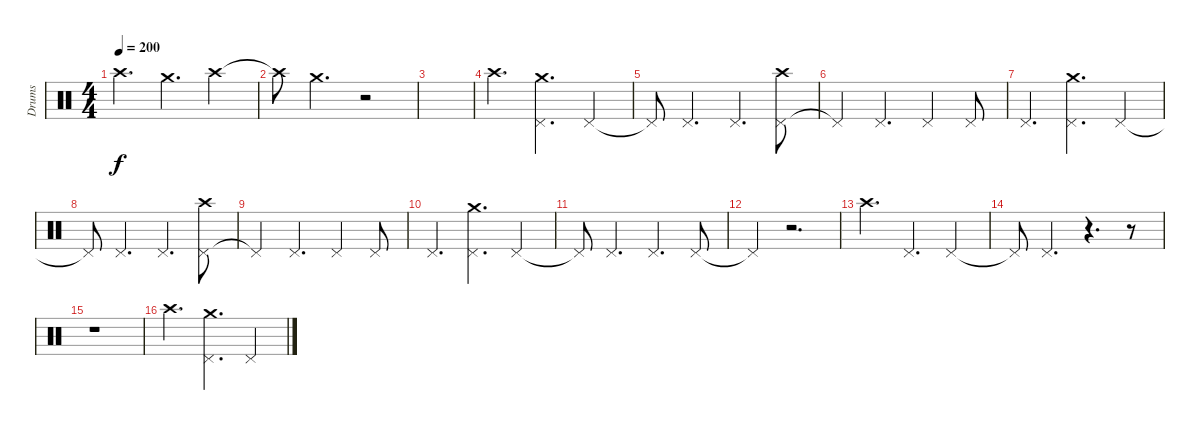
\track ("Drums" "Drums") {instrument percussion}
\staff {score}
\articulation defaults
\ts (4 4)
\tempo 200
\clef neutral
\ks c "Crash high (hit)".4{d dy f} "Crash medium (hit)".4{d} "Crash high (hit)".4
|
"Crash high (hit)"{t}.8 "Crash medium (hit)".4{d} r.2 |
|
"Crash high (hit)".4{d} ("Pedal Hi-Hat (hit)" "Crash medium (hit)").4{d} "Pedal Hi-Hat (hit)".4 |
"Pedal Hi-Hat (hit)"{t}.8 "Pedal Hi-Hat (hit)".4{d} "Pedal Hi-Hat (hit)".4{d} ("Pedal Hi-Hat (hit)" "Crash high (hit)").8 |
"Pedal Hi-Hat (hit)"{t}.4 "Pedal Hi-Hat (hit)".4{d} "Pedal Hi-Hat (hit)".4 "Pedal Hi-Hat (hit)".8 |
"Pedal Hi-Hat (hit)".4{d} ("Pedal Hi-Hat (hit)" "Crash medium (hit)").4{d} "Pedal Hi-Hat (hit)".4 |
"Pedal Hi-Hat (hit)"{t}.8 "Pedal Hi-Hat (hit)".4{d} "Pedal Hi-Hat (hit)".4{d} ("Pedal Hi-Hat (hit)" "Crash high (hit)").8 |
"Pedal Hi-Hat (hit)"{t}.4 "Pedal Hi-Hat (hit)".4{d} "Pedal Hi-Hat (hit)".4 "Pedal Hi-Hat (hit)".8 |
"Pedal Hi-Hat (hit)".4{d} ("Pedal Hi-Hat (hit)" "Crash medium (hit)").4{d} "Pedal Hi-Hat (hit)".4 |
"Pedal Hi-Hat (hit)"{t}.8 "Pedal Hi-Hat (hit)".4{d} "Pedal Hi-Hat (hit)".4{d} "Pedal Hi-Hat (hit)".8 |
"Pedal Hi-Hat (hit)"{t}.4 r.2{d} |
"Crash high (hit)".4{d} "Pedal Hi-Hat (hit)".4{d} "Pedal Hi-Hat (hit)".4 |
"Pedal Hi-Hat (hit)"{t}.8 "Pedal Hi-Hat (hit)".4{d} r.4{d} r.8 |
r.1 |
"Crash high (hit)".4{d} ("Pedal Hi-Hat (hit)" "Crash medium (hit)").4{d} "Pedal Hi-Hat (hit)".4
